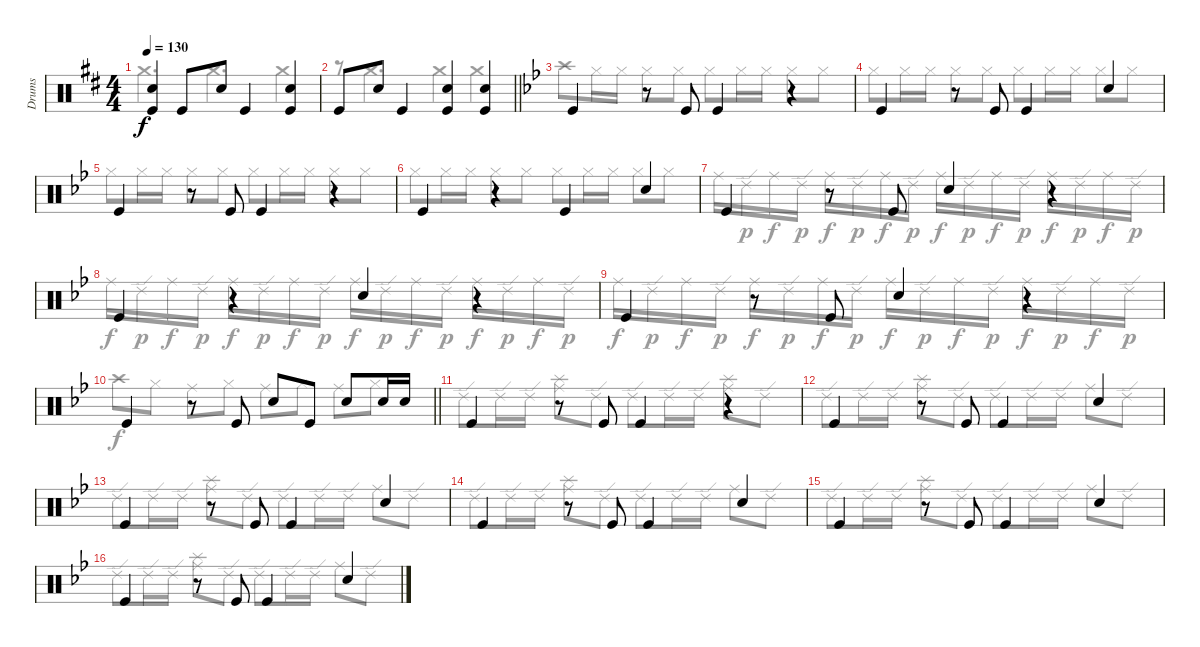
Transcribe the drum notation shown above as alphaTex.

\track ("Drums" "Drums") {instrument percussion}
\staff {score}
\articulation defaults
\voice
\ts (4 4)
\tempo 130
\clef neutral
\ks d
("Snare (hit) 2" "Kick (hit)").4{dy f} "Kick (hit)".8 "Snare (hit) 2".8 "Kick (hit)".4 ("Snare (hit) 2" "Kick (hit)").4 |
\barLineRight lightlight "Kick (hit)".8 "Snare (hit) 2".8 "Kick (hit)".4
("Snare (hit) 2" "Kick (hit)").4 ("Snare (hit) 2" "Kick (hit)").4 |
\ks gminor "Kick (hit)".4
r.8 "Kick (hit)".8 "Kick (hit)".4 r.4 |
"Kick (hit)".4 r.8 "Kick (hit)".8 "Kick (hit)".4 "Snare (hit) 2".4 |
"Kick (hit)".4 r.8 "Kick (hit)".8 "Kick (hit)".4 r.4 |
"Kick (hit)".4 r.4 "Kick (hit)".4 "Snare (hit) 2".4 |
"Kick (hit)".4 r.8 "Kick (hit)".8 "Snare (hit) 2".4 r.4 |
"Kick (hit)".4 r.4 "Snare (hit) 2".4 r.4 |
"Kick (hit)".4 r.8 "Kick (hit)".8 "Snare (hit) 2".4 r.4 |
\barLineRight lightlight "Kick (hit)".4
r.8 "Kick (hit)".8 "Snare (hit) 2".8 "Kick (hit)".8 "Snare (hit) 2".8 "Snare (hit) 2".16 "Snare (hit) 2".16 |
"Kick (hit)".4 r.8 "Kick (hit)".8 "Kick (hit)".4 r.4 |
"Kick (hit)".4 r.8 "Kick (hit)".8 "Kick (hit)".4 "Snare (hit) 2".4 |
"Kick (hit)".4 r.8 "Kick (hit)".8 "Kick (hit)".4 "Snare (hit) 2".4 |
"Kick (hit)".4 r.8 "Kick (hit)".8 "Kick (hit)".4 "Snare (hit) 2".4 |
"Kick (hit)".4 r.8 "Kick (hit)".8 "Kick (hit)".4 "Snare (hit) 2".4 |
"Kick (hit)".4 r.8 "Kick (hit)".8 "Kick (hit)".4 "Snare (hit) 2".4
\voice
\clef neutral
\ottava regular
\simile none
\ks d "Crash medium (hit)".4{d dy f} "Crash medium (hit)".4{d} "Crash medium (hit)".4
|
\barLineRight lightlight
r.8 "Crash medium (hit)".4{d} "Crash medium (hit)".4 "Crash medium (hit)".4 |
\ks gminor "Crash high (hit)".8 "Hi-Hat (closed)".16 "Hi-Hat (closed)".16 "Hi-Hat (closed)".8 "Hi-Hat (closed)".8 "Hi-Hat (closed)".8 "Hi-Hat (closed)".16 "Hi-Hat (closed)".16 "Hi-Hat (closed)".8 "Hi-Hat (closed)".8
|
"Hi-Hat (closed)".8 "Hi-Hat (closed)".16 "Hi-Hat (closed)".16 "Hi-Hat (closed)".8 "Hi-Hat (closed)".8 "Hi-Hat (closed)".8 "Hi-Hat (closed)".16 "Hi-Hat (closed)".16 "Hi-Hat (closed)".8 "Hi-Hat (closed)".8 |
"Hi-Hat (closed)".8 "Hi-Hat (closed)".16 "Hi-Hat (closed)".16 "Hi-Hat (closed)".8 "Hi-Hat (closed)".8 "Hi-Hat (closed)".8 "Hi-Hat (closed)".16 "Hi-Hat (closed)".16 "Hi-Hat (closed)".8 "Hi-Hat (closed)".8 |
"Hi-Hat (closed)".8 "Hi-Hat (closed)".16 "Hi-Hat (closed)".16 "Hi-Hat (closed)".8 "Hi-Hat (closed)".8 "Hi-Hat (closed)".8 "Hi-Hat (closed)".16 "Hi-Hat (closed)".16 "Hi-Hat (closed)".8 "Hi-Hat (closed)".8 |
"Ride (middle)".16 "Ride (edge) 2".16{dy p} "Ride (middle)".16{dy f} "Ride (edge) 2".16{dy p} "Ride (middle)".16{dy f} "Ride (edge) 2".16{dy p} "Ride (middle)".16{dy f} "Ride (edge) 2".16{dy p} "Ride (middle)".16{dy f} "Ride (edge) 2".16{dy p} "Ride (middle)".16{dy f} "Ride (edge) 2".16{dy p} "Ride (middle)".16{dy f} "Ride (edge) 2".16{dy p} "Ride (middle)".16{dy f} "Ride (edge) 2".16{dy p} |
"Ride (middle)".16{dy f} "Ride (edge) 2".16{dy p} "Ride (middle)".16{dy f} "Ride (edge) 2".16{dy p} "Ride (middle)".16{dy f} "Ride (edge) 2".16{dy p} "Ride (middle)".16{dy f} "Ride (edge) 2".16{dy p} "Ride (middle)".16{dy f} "Ride (edge) 2".16{dy p} "Ride (middle)".16{dy f} "Ride (edge) 2".16{dy p} "Ride (middle)".16{dy f} "Ride (edge) 2".16{dy p} "Ride (middle)".16{dy f} "Ride (edge) 2".16{dy p} |
"Ride (middle)".16{dy f} "Ride (edge) 2".16{dy p} "Ride (middle)".16{dy f} "Ride (edge) 2".16{dy p} "Ride (middle)".16{dy f} "Ride (edge) 2".16{dy p} "Ride (middle)".16{dy f} "Ride (edge) 2".16{dy p} "Ride (middle)".16{dy f} "Ride (edge) 2".16{dy p} "Ride (middle)".16{dy f} "Ride (edge) 2".16{dy p} "Ride (middle)".16{dy f} "Ride (edge) 2".16{dy p} "Ride (middle)".16{dy f} "Ride (edge) 2".16{dy p} |
\barLineRight lightlight "Crash high (hit)".8{dy f} "Hi-Hat (closed)".8 "Ride (middle)".8 "Hi-Hat (closed)".8 "Ride (middle)".8 "Hi-Hat (closed)".8 "Ride (middle)".8 "Hi-Hat (closed)".8
|
"Ride (edge) 2".8 "Ride (edge) 2".16 "Ride (edge) 2".16 ("Ride (middle)" "Splash (hit)").8 "Ride (edge) 2".8 "Ride (edge) 2".8 "Ride (edge) 2".16 "Ride (edge) 2".16 ("Ride (middle)" "Splash (hit)").8 "Ride (edge) 2".8 |
"Ride (edge) 2".8 "Ride (edge) 2".16 "Ride (edge) 2".16 ("Ride (middle)" "Splash (hit)").8 "Ride (edge) 2".8 "Ride (edge) 2".8 "Ride (edge) 2".16 "Ride (edge) 2".16 "Ride (middle)".8 "Ride (edge) 2".8 |
"Ride (edge) 2".8 "Ride (edge) 2".16 "Ride (edge) 2".16 ("Ride (middle)" "Splash (hit)").8 "Ride (edge) 2".8 "Ride (edge) 2".8 "Ride (edge) 2".16 "Ride (edge) 2".16 "Ride (middle)".8 "Ride (edge) 2".8 |
"Ride (edge) 2".8 "Ride (edge) 2".16 "Ride (edge) 2".16 ("Ride (middle)" "Splash (hit)").8 "Ride (edge) 2".8 "Ride (edge) 2".8 "Ride (edge) 2".16 "Ride (edge) 2".16 "Ride (middle)".8 "Ride (edge) 2".8 |
"Ride (edge) 2".8 "Ride (edge) 2".16 "Ride (edge) 2".16 ("Ride (middle)" "Splash (hit)").8 "Ride (edge) 2".8 "Ride (edge) 2".8 "Ride (edge) 2".16 "Ride (edge) 2".16 "Ride (middle)".8 "Ride (edge) 2".8 |
"Ride (edge) 2".8 "Ride (edge) 2".16 "Ride (edge) 2".16 ("Ride (middle)" "Splash (hit)").8 "Ride (edge) 2".8 "Ride (edge) 2".8 "Ride (edge) 2".16 "Ride (edge) 2".16 "Ride (middle)".8 "Ride (edge) 2".8
